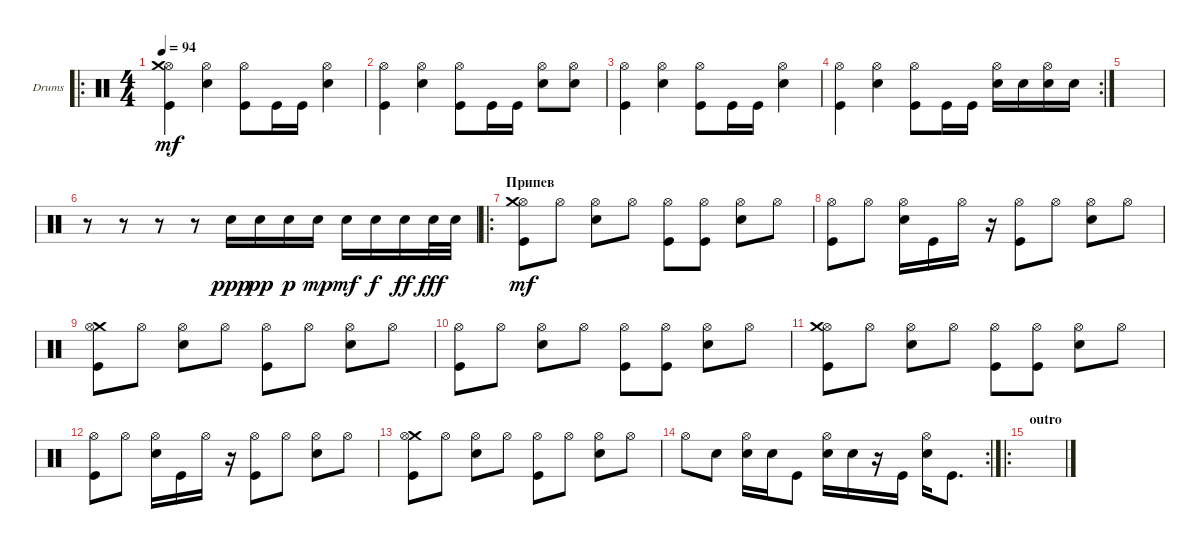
\defaultSystemsLayout 4
\bracketExtendMode groupsimilarinstruments
\firstSystemTrackNameOrientation horizontal
\otherSystemsTrackNameOrientation horizontal
\track ("Drumkit" "Drums") {instrument percussion}
\staff {score}
\articulation defaults
\ro
\ts (4 4)
\tempo 94
\clef neutral
\ks c
("Kick (hit)" "Hi-Hat (open)" "Crash medium (hit)").4{dy mf} ("Snare (hit) 2" "Hi-Hat (open)").4 ("Kick (hit)" "Hi-Hat (open)").8 "Kick (hit)".16 "Kick (hit)".16 ("Hi-Hat (open)" "Snare (hit) 2").4 |
("Kick (hit)" "Hi-Hat (open)").4 ("Snare (hit) 2" "Hi-Hat (open)").4 ("Kick (hit)" "Hi-Hat (open)").8 "Kick (hit)".16 "Kick (hit)".16 ("Hi-Hat (open)" "Snare (hit) 2").8 ("Snare (hit) 2" "Hi-Hat (open)").8 |
("Kick (hit)" "Hi-Hat (open)").4 ("Snare (hit) 2" "Hi-Hat (open)").4 ("Kick (hit)" "Hi-Hat (open)").8 "Kick (hit)".16 "Kick (hit)".16 ("Hi-Hat (open)" "Snare (hit) 2").4 |
\rc 2
("Kick (hit)" "Hi-Hat (open)").4 ("Snare (hit) 2" "Hi-Hat (open)").4 ("Kick (hit)" "Hi-Hat (open)").8 "Kick (hit)".16 "Kick (hit)".16 ("Hi-Hat (open)" "Snare (hit) 2").16 "Snare (hit) 2".16 ("Snare (hit) 2" "Hi-Hat (open)").16 "Snare (hit) 2".16 |
|
r.8 r.8 r.8 r.8 "Snare (hit) 2".16{dy ppp} "Snare (hit) 2".16{dy pp} "Snare (hit) 2".16{dy p} "Snare (hit) 2".16{dy mp} "Snare (hit) 2".16{dy mf} "Snare (hit) 2".16{dy f} "Snare (hit) 2".16{dy ff} "Snare (hit) 2".32{dy fff} "Snare (hit) 2".32 |
\ro
\section ("" "Припев")
("Kick (hit)" "Hi-Hat (open)" "Crash medium (hit)").8{dy mf} "Hi-Hat (open)".8 ("Snare (hit) 2" "Hi-Hat (open)").8 "Hi-Hat (open)".8 ("Kick (hit)" "Hi-Hat (open)").8 ("Kick (hit)" "Hi-Hat (open)").8 ("Snare (hit) 2" "Hi-Hat (open)").8 "Hi-Hat (open)".8 |
("Kick (hit)" "Hi-Hat (open)").8 "Hi-Hat (open)".8 ("Snare (hit) 2" "Hi-Hat (open)").16 "Kick (hit)".16 "Hi-Hat (open)".16 r.16 ("Hi-Hat (open)" "Kick (hit)").8 "Hi-Hat (open)".8 ("Hi-Hat (open)" "Snare (hit) 2").8 "Hi-Hat (open)".8 |
("Kick (hit)" "Crash medium (hit)" "Hi-Hat (open)").8 "Hi-Hat (open)".8 ("Snare (hit) 2" "Hi-Hat (open)").8 "Hi-Hat (open)".8 ("Kick (hit)" "Hi-Hat (open)").8 "Hi-Hat (open)".8 ("Snare (hit) 2" "Hi-Hat (open)").8 "Hi-Hat (open)".8 |
("Kick (hit)" "Hi-Hat (open)").8 "Hi-Hat (open)".8 ("Snare (hit) 2" "Hi-Hat (open)").8 "Hi-Hat (open)".8 ("Kick (hit)" "Hi-Hat (open)").8 ("Kick (hit)" "Hi-Hat (open)").8 ("Snare (hit) 2" "Hi-Hat (open)").8 "Hi-Hat (open)".8 |
("Kick (hit)" "Hi-Hat (open)" "Crash medium (hit)").8 "Hi-Hat (open)".8 ("Snare (hit) 2" "Hi-Hat (open)").8 "Hi-Hat (open)".8 ("Kick (hit)" "Hi-Hat (open)").8 ("Kick (hit)" "Hi-Hat (open)").8 ("Snare (hit) 2" "Hi-Hat (open)").8 "Hi-Hat (open)".8 |
("Kick (hit)" "Hi-Hat (open)").8 "Hi-Hat (open)".8 ("Snare (hit) 2" "Hi-Hat (open)").16 "Kick (hit)".16 "Hi-Hat (open)".16 r.16 ("Hi-Hat (open)" "Kick (hit)").8 "Hi-Hat (open)".8 ("Hi-Hat (open)" "Snare (hit) 2").8 "Hi-Hat (open)".8 |
("Kick (hit)" "Crash medium (hit)" "Hi-Hat (open)").8 "Hi-Hat (open)".8 ("Snare (hit) 2" "Hi-Hat (open)").8 "Hi-Hat (open)".8 ("Kick (hit)" "Hi-Hat (open)").8 "Hi-Hat (open)".8 ("Snare (hit) 2" "Hi-Hat (open)").8 "Hi-Hat (open)".8 |
\rc 2 "Hi-Hat (open)".8 "Snare (hit) 2".8
("Snare (hit) 2" "Hi-Hat (open)").16 "Snare (hit) 2".16 "Kick (hit)".8 ("Snare (hit) 2" "Hi-Hat (open)").16 "Snare (hit) 2".16 r.16 "Kick (hit)".16 ("Snare (hit) 2" "Hi-Hat (open)").16 "Kick (hit)".8{d} |
\ro
\section ("" "outro")
